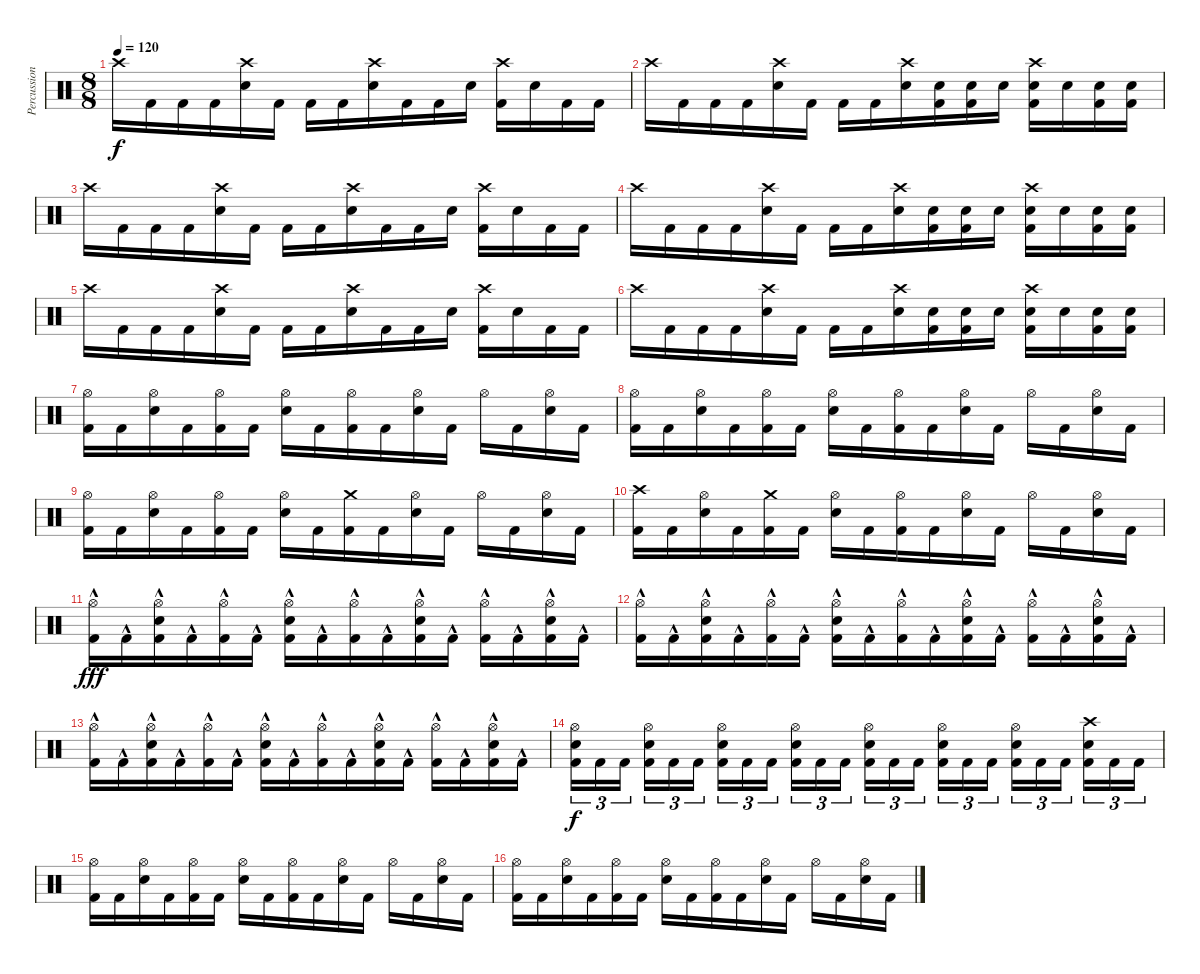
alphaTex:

\track ("Percussion" "Percussion") {instrument percussion}
\staff {score}
\articulation defaults
\ts (8 8)
\tempo 120
\clef neutral
\ks c "Crash high (hit)".16{dy f} "Kick (hit) 2".16 "Kick (hit) 2".16 "Kick (hit) 2".16
("Crash high (hit)" "Snare (hit) 2").16 "Kick (hit) 2".16 "Kick (hit) 2".16 "Kick (hit) 2".16 ("Crash high (hit)" "Snare (hit) 2").16 "Kick (hit) 2".16 "Kick (hit) 2".16 "Snare (hit) 2".16 ("Crash high (hit)" "Kick (hit) 2").16 "Snare (hit) 2".16 "Kick (hit) 2".16 "Kick (hit) 2".16 |
"Crash high (hit)".16 "Kick (hit) 2".16 "Kick (hit) 2".16 "Kick (hit) 2".16 ("Crash high (hit)" "Snare (hit) 2").16 "Kick (hit) 2".16 "Kick (hit) 2".16 "Kick (hit) 2".16 ("Crash high (hit)" "Snare (hit) 2").16 ("Snare (hit) 2" "Kick (hit) 2").16 ("Snare (hit) 2" "Kick (hit) 2").16 "Snare (hit) 2".16 ("Crash high (hit)" "Snare (hit) 2" "Kick (hit) 2").16 "Snare (hit) 2".16 ("Snare (hit) 2" "Kick (hit) 2").16 ("Snare (hit) 2" "Kick (hit) 2").16 |
"Crash high (hit)".16 "Kick (hit) 2".16 "Kick (hit) 2".16 "Kick (hit) 2".16 ("Crash high (hit)" "Snare (hit) 2").16 "Kick (hit) 2".16 "Kick (hit) 2".16 "Kick (hit) 2".16 ("Crash high (hit)" "Snare (hit) 2").16 "Kick (hit) 2".16 "Kick (hit) 2".16 "Snare (hit) 2".16 ("Crash high (hit)" "Kick (hit) 2").16 "Snare (hit) 2".16 "Kick (hit) 2".16 "Kick (hit) 2".16 |
"Crash high (hit)".16 "Kick (hit) 2".16 "Kick (hit) 2".16 "Kick (hit) 2".16 ("Crash high (hit)" "Snare (hit) 2").16 "Kick (hit) 2".16 "Kick (hit) 2".16 "Kick (hit) 2".16 ("Crash high (hit)" "Snare (hit) 2").16 ("Snare (hit) 2" "Kick (hit) 2").16 ("Snare (hit) 2" "Kick (hit) 2").16 "Snare (hit) 2".16 ("Crash high (hit)" "Snare (hit) 2" "Kick (hit) 2").16 "Snare (hit) 2".16 ("Snare (hit) 2" "Kick (hit) 2").16 ("Snare (hit) 2" "Kick (hit) 2").16 |
"Crash high (hit)".16 "Kick (hit) 2".16 "Kick (hit) 2".16 "Kick (hit) 2".16 ("Crash high (hit)" "Snare (hit) 2").16 "Kick (hit) 2".16 "Kick (hit) 2".16 "Kick (hit) 2".16 ("Crash high (hit)" "Snare (hit) 2").16 "Kick (hit) 2".16 "Kick (hit) 2".16 "Snare (hit) 2".16 ("Crash high (hit)" "Kick (hit) 2").16 "Snare (hit) 2".16 "Kick (hit) 2".16 "Kick (hit) 2".16 |
"Crash high (hit)".16 "Kick (hit) 2".16 "Kick (hit) 2".16 "Kick (hit) 2".16 ("Crash high (hit)" "Snare (hit) 2").16 "Kick (hit) 2".16 "Kick (hit) 2".16 "Kick (hit) 2".16 ("Crash high (hit)" "Snare (hit) 2").16 ("Snare (hit) 2" "Kick (hit) 2").16 ("Snare (hit) 2" "Kick (hit) 2").16 "Snare (hit) 2".16 ("Crash high (hit)" "Snare (hit) 2" "Kick (hit) 2").16 "Snare (hit) 2".16 ("Snare (hit) 2" "Kick (hit) 2").16 ("Snare (hit) 2" "Kick (hit) 2").16 |
("Hi-Hat (open)" "Kick (hit) 2").16 "Kick (hit) 2".16 ("Hi-Hat (open)" "Snare (hit) 2").16 "Kick (hit) 2".16 ("Hi-Hat (open)" "Kick (hit) 2").16 "Kick (hit) 2".16 ("Hi-Hat (open)" "Snare (hit) 2").16 "Kick (hit) 2".16 ("Hi-Hat (open)" "Kick (hit) 2").16 "Kick (hit) 2".16 ("Hi-Hat (open)" "Snare (hit) 2").16 "Kick (hit) 2".16 "Hi-Hat (open)".16 "Kick (hit) 2".16 ("Hi-Hat (open)" "Snare (hit) 2").16 "Kick (hit) 2".16 |
("Hi-Hat (open)" "Kick (hit) 2").16 "Kick (hit) 2".16 ("Hi-Hat (open)" "Snare (hit) 2").16 "Kick (hit) 2".16 ("Hi-Hat (open)" "Kick (hit) 2").16 "Kick (hit) 2".16 ("Hi-Hat (open)" "Snare (hit) 2").16 "Kick (hit) 2".16 ("Hi-Hat (open)" "Kick (hit) 2").16 "Kick (hit) 2".16 ("Hi-Hat (open)" "Snare (hit) 2").16 "Kick (hit) 2".16 "Hi-Hat (open)".16 "Kick (hit) 2".16 ("Hi-Hat (open)" "Snare (hit) 2").16 "Kick (hit) 2".16 |
("Hi-Hat (open)" "Kick (hit) 2").16 "Kick (hit) 2".16 ("Hi-Hat (open)" "Snare (hit) 2").16 "Kick (hit) 2".16 ("Hi-Hat (open)" "Kick (hit) 2").16 "Kick (hit) 2".16 ("Hi-Hat (open)" "Snare (hit) 2").16 "Kick (hit) 2".16 ("Crash medium (hit)" "Kick (hit) 2").16 "Kick (hit) 2".16 ("Hi-Hat (open)" "Snare (hit) 2").16 "Kick (hit) 2".16 "Hi-Hat (open)".16 "Kick (hit) 2".16 ("Hi-Hat (open)" "Snare (hit) 2").16 "Kick (hit) 2".16 |
("Crash high (hit)" "Kick (hit) 2").16 "Kick (hit) 2".16 ("Hi-Hat (open)" "Snare (hit) 2").16 "Kick (hit) 2".16 ("Crash medium (hit)" "Kick (hit) 2").16 "Kick (hit) 2".16 ("Hi-Hat (open)" "Snare (hit) 2").16 "Kick (hit) 2".16 ("Hi-Hat (open)" "Kick (hit) 2").16 "Kick (hit) 2".16 ("Hi-Hat (open)" "Snare (hit) 2").16 "Kick (hit) 2".16 "Hi-Hat (open)".16 "Kick (hit) 2".16 ("Hi-Hat (open)" "Snare (hit) 2").16 "Kick (hit) 2".16 |
("Hi-Hat (open)" "Kick (hit) 2"{hac}).16{dy fff} "Kick (hit) 2"{hac}.16 ("Hi-Hat (open)" "Snare (hit) 2" "Kick (hit) 2"{hac}).16 "Kick (hit) 2"{hac}.16 ("Hi-Hat (open)" "Kick (hit) 2"{hac}).16 "Kick (hit) 2"{hac}.16 ("Hi-Hat (open)" "Snare (hit) 2" "Kick (hit) 2"{hac}).16 "Kick (hit) 2"{hac}.16 ("Hi-Hat (open)" "Kick (hit) 2"{hac}).16 "Kick (hit) 2"{hac}.16 ("Hi-Hat (open)" "Snare (hit) 2" "Kick (hit) 2"{hac}).16 "Kick (hit) 2"{hac}.16 ("Hi-Hat (open)" "Kick (hit) 2"{hac}).16 "Kick (hit) 2"{hac}.16 ("Hi-Hat (open)" "Snare (hit) 2" "Kick (hit) 2"{hac}).16 "Kick (hit) 2"{hac}.16 |
("Hi-Hat (open)" "Kick (hit) 2"{hac}).16 "Kick (hit) 2"{hac}.16 ("Hi-Hat (open)" "Snare (hit) 2" "Kick (hit) 2"{hac}).16 "Kick (hit) 2"{hac}.16 ("Hi-Hat (open)" "Kick (hit) 2"{hac}).16 "Kick (hit) 2"{hac}.16 ("Hi-Hat (open)" "Snare (hit) 2" "Kick (hit) 2"{hac}).16 "Kick (hit) 2"{hac}.16 ("Hi-Hat (open)" "Kick (hit) 2"{hac}).16 "Kick (hit) 2"{hac}.16 ("Hi-Hat (open)" "Snare (hit) 2" "Kick (hit) 2"{hac}).16 "Kick (hit) 2"{hac}.16 ("Hi-Hat (open)" "Kick (hit) 2"{hac}).16 "Kick (hit) 2"{hac}.16 ("Hi-Hat (open)" "Snare (hit) 2" "Kick (hit) 2"{hac}).16 "Kick (hit) 2"{hac}.16 |
("Hi-Hat (open)" "Kick (hit) 2"{hac}).16 "Kick (hit) 2"{hac}.16 ("Hi-Hat (open)" "Snare (hit) 2" "Kick (hit) 2"{hac}).16 "Kick (hit) 2"{hac}.16 ("Hi-Hat (open)" "Kick (hit) 2"{hac}).16 "Kick (hit) 2"{hac}.16 ("Hi-Hat (open)" "Snare (hit) 2" "Kick (hit) 2"{hac}).16 "Kick (hit) 2"{hac}.16 ("Hi-Hat (open)" "Kick (hit) 2"{hac}).16 "Kick (hit) 2"{hac}.16 ("Hi-Hat (open)" "Snare (hit) 2" "Kick (hit) 2"{hac}).16 "Kick (hit) 2"{hac}.16 ("Hi-Hat (open)" "Kick (hit) 2"{hac}).16 "Kick (hit) 2"{hac}.16 ("Hi-Hat (open)" "Snare (hit) 2" "Kick (hit) 2"{hac}).16 "Kick (hit) 2"{hac}.16 |
("Hi-Hat (open)" "Snare (hit) 2" "Kick (hit) 2").16{tu (3 2) dy f} "Kick (hit) 2".16{tu (3 2)} "Kick (hit) 2".16{tu (3 2)} ("Hi-Hat (open)" "Snare (hit) 2" "Kick (hit) 2").16{tu (3 2)} "Kick (hit) 2".16{tu (3 2)} "Kick (hit) 2".16{tu (3 2)} ("Hi-Hat (open)" "Snare (hit) 2" "Kick (hit) 2").16{tu (3 2)} "Kick (hit) 2".16{tu (3 2)} "Kick (hit) 2".16{tu (3 2)} ("Hi-Hat (open)" "Snare (hit) 2" "Kick (hit) 2").16{tu (3 2)} "Kick (hit) 2".16{tu (3 2)} "Kick (hit) 2".16{tu (3 2)} ("Hi-Hat (open)" "Snare (hit) 2" "Kick (hit) 2").16{tu (3 2)} "Kick (hit) 2".16{tu (3 2)} "Kick (hit) 2".16{tu (3 2)} ("Hi-Hat (open)" "Snare (hit) 2" "Kick (hit) 2").16{tu (3 2)} "Kick (hit) 2".16{tu (3 2)} "Kick (hit) 2".16{tu (3 2)} ("Hi-Hat (open)" "Snare (hit) 2" "Kick (hit) 2").16{tu (3 2)} "Kick (hit) 2".16{tu (3 2)} "Kick (hit) 2".16{tu (3 2)} ("Crash high (hit)" "Snare (hit) 2" "Kick (hit) 2").16{tu (3 2)} "Kick (hit) 2".16{tu (3 2)} "Kick (hit) 2".16{tu (3 2)} |
("Hi-Hat (open)" "Kick (hit) 2").16 "Kick (hit) 2".16 ("Hi-Hat (open)" "Snare (hit) 2").16 "Kick (hit) 2".16 ("Hi-Hat (open)" "Kick (hit) 2").16 "Kick (hit) 2".16 ("Hi-Hat (open)" "Snare (hit) 2").16 "Kick (hit) 2".16 ("Hi-Hat (open)" "Kick (hit) 2").16 "Kick (hit) 2".16 ("Hi-Hat (open)" "Snare (hit) 2").16 "Kick (hit) 2".16 "Hi-Hat (open)".16 "Kick (hit) 2".16 ("Hi-Hat (open)" "Snare (hit) 2").16 "Kick (hit) 2".16 |
("Hi-Hat (open)" "Kick (hit) 2").16 "Kick (hit) 2".16 ("Hi-Hat (open)" "Snare (hit) 2").16 "Kick (hit) 2".16 ("Hi-Hat (open)" "Kick (hit) 2").16 "Kick (hit) 2".16 ("Hi-Hat (open)" "Snare (hit) 2").16 "Kick (hit) 2".16 ("Hi-Hat (open)" "Kick (hit) 2").16 "Kick (hit) 2".16 ("Hi-Hat (open)" "Snare (hit) 2").16 "Kick (hit) 2".16 "Hi-Hat (open)".16 "Kick (hit) 2".16 ("Hi-Hat (open)" "Snare (hit) 2").16 "Kick (hit) 2".16
